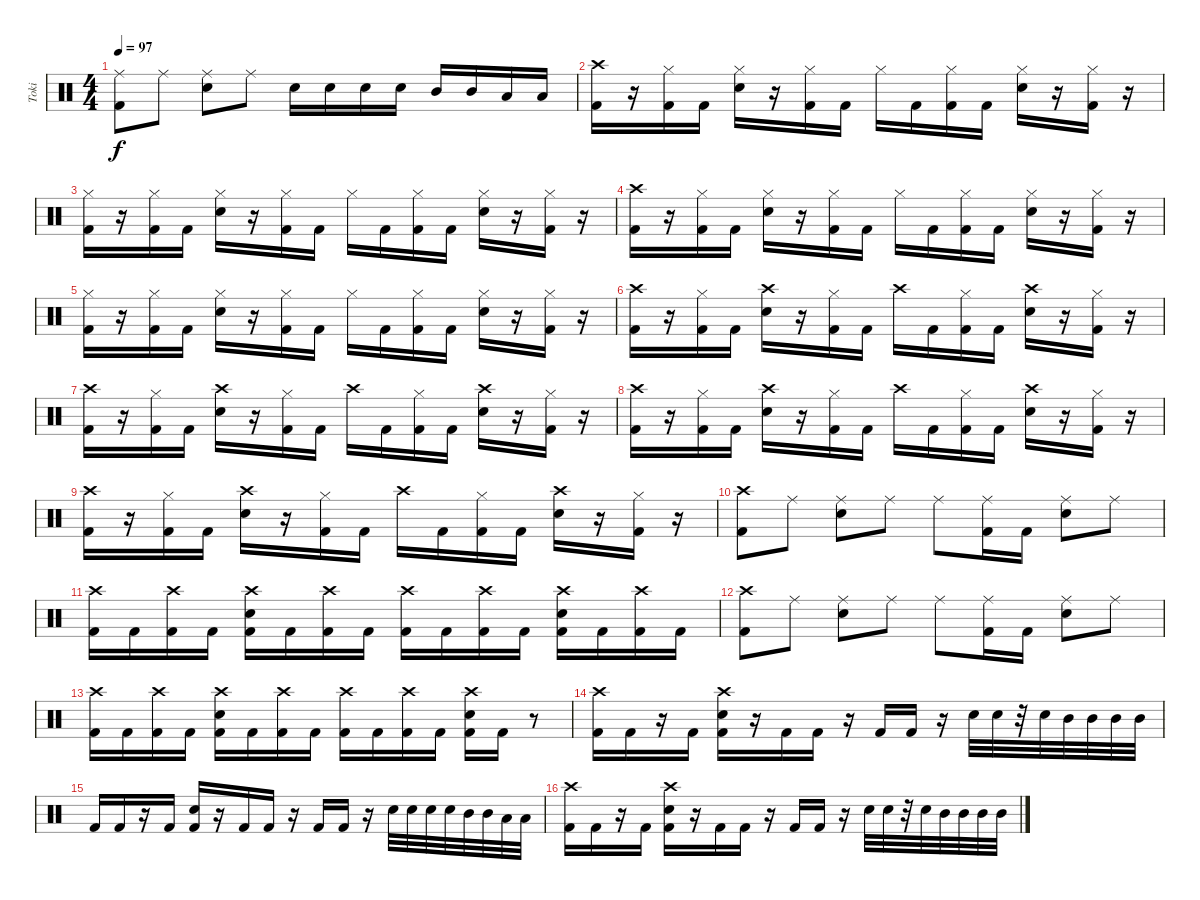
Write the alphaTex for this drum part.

\track ("Toki" "Toki") {instrument percussion}
\staff {score}
\articulation defaults
\ts (4 4)
\tempo 97
\clef neutral
\ks c
("Ride (middle)" "Kick (hit) 2").8{dy f} "Ride (middle)".8 ("Ride (middle)" "Electric Snare (hit)").8 "Ride (middle)".8 "Electric Snare (hit)".16 "Electric Snare (hit)".16 "Electric Snare (hit)".16 "Electric Snare (hit)".16 "Mid Tom (hit)".16 "Mid Tom (hit)".16 "Low Tom (hit)".16 "Low Tom (hit)".16 |
\section ("" "")
("Crash high (hit)" "Kick (hit) 2").16 r.16 ("Hi-Hat (closed)" "Kick (hit) 2").16 "Kick (hit) 2".16 ("Hi-Hat (closed)" "Electric Snare (hit)").16 r.16 ("Hi-Hat (closed)" "Kick (hit) 2").16 "Kick (hit) 2".16 "Hi-Hat (closed)".16 "Kick (hit) 2".16 ("Hi-Hat (closed)" "Kick (hit) 2").16 "Kick (hit) 2".16 ("Hi-Hat (closed)" "Electric Snare (hit)").16 r.16 ("Hi-Hat (closed)" "Kick (hit) 2").16 r.16 |
("Hi-Hat (closed)" "Kick (hit) 2").16 r.16 ("Hi-Hat (closed)" "Kick (hit) 2").16 "Kick (hit) 2".16 ("Hi-Hat (closed)" "Electric Snare (hit)").16 r.16 ("Hi-Hat (closed)" "Kick (hit) 2").16 "Kick (hit) 2".16 "Hi-Hat (closed)".16 "Kick (hit) 2".16 ("Hi-Hat (closed)" "Kick (hit) 2").16 "Kick (hit) 2".16 ("Hi-Hat (closed)" "Electric Snare (hit)").16 r.16 ("Hi-Hat (closed)" "Kick (hit) 2").16 r.16 |
("Crash high (hit)" "Kick (hit) 2").16 r.16 ("Hi-Hat (closed)" "Kick (hit) 2").16 "Kick (hit) 2".16 ("Hi-Hat (closed)" "Electric Snare (hit)").16 r.16 ("Hi-Hat (closed)" "Kick (hit) 2").16 "Kick (hit) 2".16 "Hi-Hat (closed)".16 "Kick (hit) 2".16 ("Hi-Hat (closed)" "Kick (hit) 2").16 "Kick (hit) 2".16 ("Hi-Hat (closed)" "Electric Snare (hit)").16 r.16 ("Hi-Hat (closed)" "Kick (hit) 2").16 r.16 |
("Hi-Hat (closed)" "Kick (hit) 2").16 r.16 ("Hi-Hat (closed)" "Kick (hit) 2").16 "Kick (hit) 2".16 ("Hi-Hat (closed)" "Electric Snare (hit)").16 r.16 ("Hi-Hat (closed)" "Kick (hit) 2").16 "Kick (hit) 2".16 "Hi-Hat (closed)".16 "Kick (hit) 2".16 ("Hi-Hat (closed)" "Kick (hit) 2").16 "Kick (hit) 2".16 ("Hi-Hat (closed)" "Electric Snare (hit)").16 r.16 ("Hi-Hat (closed)" "Kick (hit) 2").16 r.16 |
("Crash high (hit)" "Kick (hit) 2").16 r.16 ("Hi-Hat (closed)" "Kick (hit) 2").16 "Kick (hit) 2".16 ("Crash high (hit)" "Electric Snare (hit)").16 r.16 ("Hi-Hat (closed)" "Kick (hit) 2").16 "Kick (hit) 2".16 "Crash high (hit)".16 "Kick (hit) 2".16 ("Hi-Hat (closed)" "Kick (hit) 2").16 "Kick (hit) 2".16 ("Crash high (hit)" "Electric Snare (hit)").16 r.16 ("Hi-Hat (closed)" "Kick (hit) 2").16 r.16 |
("Crash high (hit)" "Kick (hit) 2").16 r.16 ("Hi-Hat (closed)" "Kick (hit) 2").16 "Kick (hit) 2".16 ("Crash high (hit)" "Electric Snare (hit)").16 r.16 ("Hi-Hat (closed)" "Kick (hit) 2").16 "Kick (hit) 2".16 "Crash high (hit)".16 "Kick (hit) 2".16 ("Hi-Hat (closed)" "Kick (hit) 2").16 "Kick (hit) 2".16 ("Crash high (hit)" "Electric Snare (hit)").16 r.16 ("Hi-Hat (closed)" "Kick (hit) 2").16 r.16 |
("Crash high (hit)" "Kick (hit) 2").16 r.16 ("Hi-Hat (closed)" "Kick (hit) 2").16 "Kick (hit) 2".16 ("Crash high (hit)" "Electric Snare (hit)").16 r.16 ("Hi-Hat (closed)" "Kick (hit) 2").16 "Kick (hit) 2".16 "Crash high (hit)".16 "Kick (hit) 2".16 ("Hi-Hat (closed)" "Kick (hit) 2").16 "Kick (hit) 2".16 ("Crash high (hit)" "Electric Snare (hit)").16 r.16 ("Hi-Hat (closed)" "Kick (hit) 2").16 r.16 |
("Crash high (hit)" "Kick (hit) 2").16 r.16 ("Hi-Hat (closed)" "Kick (hit) 2").16 "Kick (hit) 2".16 ("Crash high (hit)" "Electric Snare (hit)").16 r.16 ("Hi-Hat (closed)" "Kick (hit) 2").16 "Kick (hit) 2".16 "Crash high (hit)".16 "Kick (hit) 2".16 ("Hi-Hat (closed)" "Kick (hit) 2").16 "Kick (hit) 2".16 ("Crash high (hit)" "Electric Snare (hit)").16 r.16 ("Hi-Hat (closed)" "Kick (hit) 2").16 r.16 |
\section ("" "")
("Crash high (hit)" "Kick (hit) 2").8 "Ride (middle)".8 ("Ride (middle)" "Electric Snare (hit)").8 "Ride (middle)".8 "Ride (middle)".8 ("Ride (middle)" "Kick (hit) 2").16 "Kick (hit) 2".16 ("Ride (middle)" "Electric Snare (hit)").8 "Ride (middle)".8 |
("Crash high (hit)" "Kick (hit) 2").16 "Kick (hit) 2".16 ("Crash high (hit)" "Kick (hit) 2").16 "Kick (hit) 2".16 ("Crash high (hit)" "Electric Snare (hit)" "Kick (hit) 2").16 "Kick (hit) 2".16 ("Crash high (hit)" "Kick (hit) 2").16 "Kick (hit) 2".16 ("Crash high (hit)" "Kick (hit) 2").16 "Kick (hit) 2".16 ("Crash high (hit)" "Kick (hit) 2").16 "Kick (hit) 2".16 ("Crash high (hit)" "Electric Snare (hit)" "Kick (hit) 2").16 "Kick (hit) 2".16 ("Crash high (hit)" "Kick (hit) 2").16 "Kick (hit) 2".16 |
("Crash high (hit)" "Kick (hit) 2").8 "Ride (middle)".8 ("Ride (middle)" "Electric Snare (hit)").8 "Ride (middle)".8 "Ride (middle)".8 ("Ride (middle)" "Kick (hit) 2").16 "Kick (hit) 2".16 ("Ride (middle)" "Electric Snare (hit)").8 "Ride (middle)".8 |
("Crash high (hit)" "Kick (hit) 2").16 "Kick (hit) 2".16 ("Crash high (hit)" "Kick (hit) 2").16 "Kick (hit) 2".16 ("Crash high (hit)" "Electric Snare (hit)" "Kick (hit) 2").16 "Kick (hit) 2".16 ("Crash high (hit)" "Kick (hit) 2").16 "Kick (hit) 2".16 ("Crash high (hit)" "Kick (hit) 2").16 "Kick (hit) 2".16 ("Crash high (hit)" "Kick (hit) 2").16 "Kick (hit) 2".16 ("Crash high (hit)" "Electric Snare (hit)" "Kick (hit) 2").16 "Kick (hit) 2".16 r.8 |
\section ("" "")
("Crash high (hit)" "Kick (hit) 2").16 "Kick (hit) 2".16 r.16 "Kick (hit) 2".16 ("Crash high (hit)" "Electric Snare (hit)" "Kick (hit) 2").16 r.16 "Kick (hit) 2".16 "Kick (hit) 2".16 r.16 "Kick (hit) 2".16 "Kick (hit) 2".16 r.16 "Electric Snare (hit)".32 "Electric Snare (hit)".32 r.32 "Electric Snare (hit)".32 "Mid Tom (hit)".32 "Mid Tom (hit)".32 "Mid Tom (hit)".32 "Mid Tom (hit)".32 |
"Kick (hit) 2".16 "Kick (hit) 2".16 r.16 "Kick (hit) 2".16 ("Electric Snare (hit)" "Kick (hit) 2").16 r.16 "Kick (hit) 2".16 "Kick (hit) 2".16 r.16 "Kick (hit) 2".16 "Kick (hit) 2".16 r.16 "Electric Snare (hit)".32 "Electric Snare (hit)".32 "Electric Snare (hit)".32 "Electric Snare (hit)".32 "Mid Tom (hit)".32 "Mid Tom (hit)".32 "Low Tom (hit)".32 "Low Tom (hit)".32 |
("Crash high (hit)" "Kick (hit) 2").16 "Kick (hit) 2".16 r.16 "Kick (hit) 2".16 ("Crash high (hit)" "Electric Snare (hit)" "Kick (hit) 2").16 r.16 "Kick (hit) 2".16 "Kick (hit) 2".16 r.16 "Kick (hit) 2".16 "Kick (hit) 2".16 r.16 "Electric Snare (hit)".32 "Electric Snare (hit)".32 r.32 "Electric Snare (hit)".32 "Mid Tom (hit)".32 "Mid Tom (hit)".32 "Mid Tom (hit)".32 "Mid Tom (hit)".32
